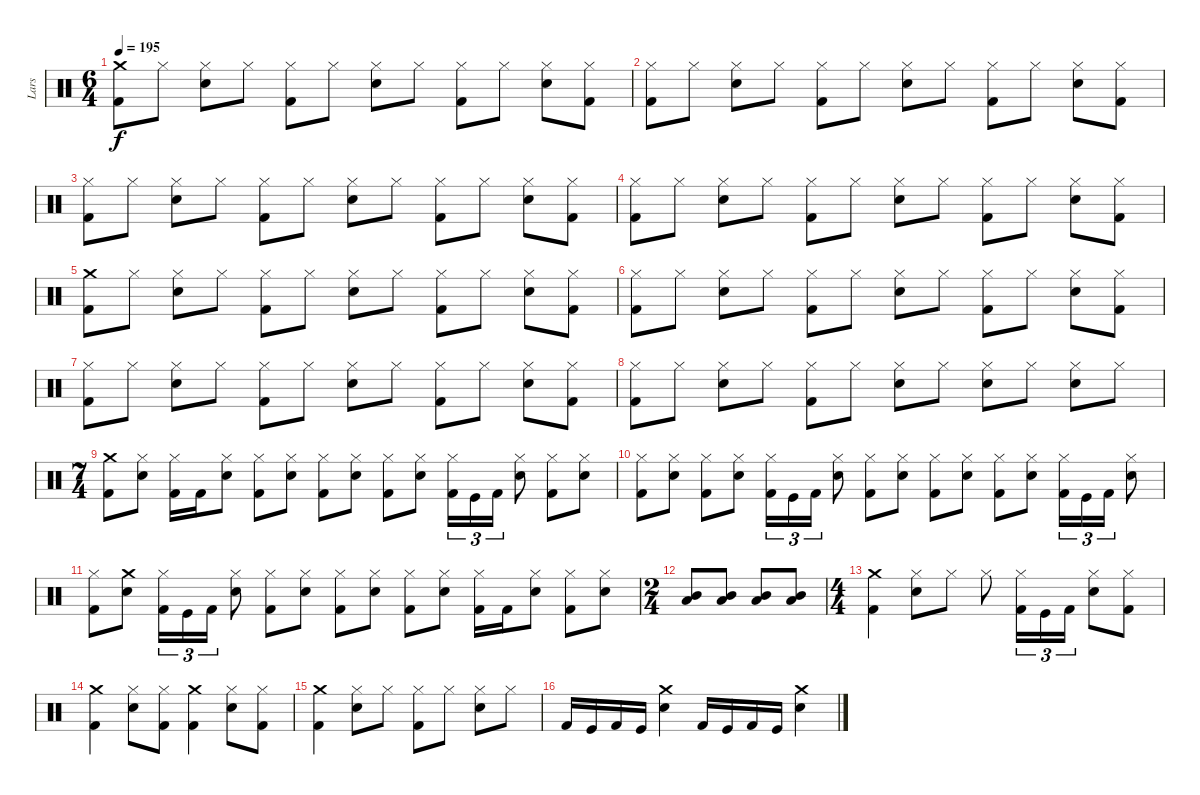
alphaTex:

\track ("Lars" "Lars") {instrument percussion}
\staff {score}
\articulation defaults
\ts (6 4)
\tempo 195
\clef neutral
\ks c
("Kick (hit) 2" "Crash medium (hit)").8{dy f} "Hi-Hat (closed)".8 ("Snare (hit) 2" "Hi-Hat (closed)").8 "Hi-Hat (closed)".8 ("Kick (hit) 2" "Hi-Hat (closed)").8 "Hi-Hat (closed)".8 ("Snare (hit) 2" "Hi-Hat (closed)").8 "Hi-Hat (closed)".8 ("Kick (hit) 2" "Hi-Hat (closed)").8 "Hi-Hat (closed)".8 ("Snare (hit) 2" "Hi-Hat (closed)").8 ("Kick (hit) 2" "Hi-Hat (closed)").8 |
("Hi-Hat (closed)" "Kick (hit) 2").8 "Hi-Hat (closed)".8 ("Snare (hit) 2" "Hi-Hat (closed)").8 "Hi-Hat (closed)".8 ("Kick (hit) 2" "Hi-Hat (closed)").8 "Hi-Hat (closed)".8 ("Snare (hit) 2" "Hi-Hat (closed)").8 "Hi-Hat (closed)".8 ("Kick (hit) 2" "Hi-Hat (closed)").8 "Hi-Hat (closed)".8 ("Snare (hit) 2" "Hi-Hat (closed)").8 ("Kick (hit) 2" "Hi-Hat (closed)").8 |
("Hi-Hat (closed)" "Kick (hit) 2").8 "Hi-Hat (closed)".8 ("Snare (hit) 2" "Hi-Hat (closed)").8 "Hi-Hat (closed)".8 ("Kick (hit) 2" "Hi-Hat (closed)").8 "Hi-Hat (closed)".8 ("Snare (hit) 2" "Hi-Hat (closed)").8 "Hi-Hat (closed)".8 ("Kick (hit) 2" "Hi-Hat (closed)").8 "Hi-Hat (closed)".8 ("Snare (hit) 2" "Hi-Hat (closed)").8 ("Kick (hit) 2" "Hi-Hat (closed)").8 |
("Hi-Hat (closed)" "Kick (hit) 2").8 "Hi-Hat (closed)".8 ("Snare (hit) 2" "Hi-Hat (closed)").8 "Hi-Hat (closed)".8 ("Kick (hit) 2" "Hi-Hat (closed)").8 "Hi-Hat (closed)".8 ("Snare (hit) 2" "Hi-Hat (closed)").8 "Hi-Hat (closed)".8 ("Kick (hit) 2" "Hi-Hat (closed)").8 "Hi-Hat (closed)".8 ("Snare (hit) 2" "Hi-Hat (closed)").8 ("Kick (hit) 2" "Hi-Hat (closed)").8 |
("Kick (hit) 2" "Crash medium (hit)").8 "Hi-Hat (closed)".8 ("Snare (hit) 2" "Hi-Hat (closed)").8 "Hi-Hat (closed)".8 ("Kick (hit) 2" "Hi-Hat (closed)").8 "Hi-Hat (closed)".8 ("Snare (hit) 2" "Hi-Hat (closed)").8 "Hi-Hat (closed)".8 ("Kick (hit) 2" "Hi-Hat (closed)").8 "Hi-Hat (closed)".8 ("Snare (hit) 2" "Hi-Hat (closed)").8 ("Kick (hit) 2" "Hi-Hat (closed)").8 |
("Hi-Hat (closed)" "Kick (hit) 2").8 "Hi-Hat (closed)".8 ("Snare (hit) 2" "Hi-Hat (closed)").8 "Hi-Hat (closed)".8 ("Kick (hit) 2" "Hi-Hat (closed)").8 "Hi-Hat (closed)".8 ("Snare (hit) 2" "Hi-Hat (closed)").8 "Hi-Hat (closed)".8 ("Kick (hit) 2" "Hi-Hat (closed)").8 "Hi-Hat (closed)".8 ("Snare (hit) 2" "Hi-Hat (closed)").8 ("Kick (hit) 2" "Hi-Hat (closed)").8 |
("Hi-Hat (closed)" "Kick (hit) 2").8 "Hi-Hat (closed)".8 ("Snare (hit) 2" "Hi-Hat (closed)").8 "Hi-Hat (closed)".8 ("Kick (hit) 2" "Hi-Hat (closed)").8 "Hi-Hat (closed)".8 ("Snare (hit) 2" "Hi-Hat (closed)").8 "Hi-Hat (closed)".8 ("Kick (hit) 2" "Hi-Hat (closed)").8 "Hi-Hat (closed)".8 ("Snare (hit) 2" "Hi-Hat (closed)").8 ("Kick (hit) 2" "Hi-Hat (closed)").8 |
("Hi-Hat (closed)" "Kick (hit) 2").8 "Hi-Hat (closed)".8 ("Snare (hit) 2" "Hi-Hat (closed)").8 "Hi-Hat (closed)".8 ("Kick (hit) 2" "Hi-Hat (closed)").8 "Hi-Hat (closed)".8 ("Snare (hit) 2" "Hi-Hat (closed)").8 "Hi-Hat (closed)".8 ("Snare (hit) 2" "Hi-Hat (closed)").8 "Hi-Hat (closed)".8 ("Snare (hit) 2" "Hi-Hat (closed)").8 "Hi-Hat (closed)".8 |
\ts (7 4)
("Crash medium (hit)" "Kick (hit) 2").8 ("Snare (hit) 2" "Hi-Hat (closed)").8 ("Hi-Hat (closed)" "Kick (hit) 2").16 "Kick (hit) 2".16 ("Snare (hit) 2" "Hi-Hat (closed)").8 ("Hi-Hat (closed)" "Kick (hit) 2").8 ("Snare (hit) 2" "Hi-Hat (closed)").8 ("Hi-Hat (closed)" "Kick (hit) 2").8 ("Snare (hit) 2" "Hi-Hat (closed)").8 ("Hi-Hat (closed)" "Kick (hit) 2").8 ("Snare (hit) 2" "Hi-Hat (closed)").8 ("Hi-Hat (closed)" "Kick (hit) 2").16{tu (3 2)} "Kick (hit)".16{tu (3 2)} "Kick (hit) 2".16{tu (3 2)} ("Snare (hit) 2" "Hi-Hat (closed)").8 ("Hi-Hat (closed)" "Kick (hit) 2").8 ("Snare (hit) 2" "Hi-Hat (closed)").8 |
("Hi-Hat (closed)" "Kick (hit) 2").8 ("Snare (hit) 2" "Hi-Hat (closed)").8 ("Hi-Hat (closed)" "Kick (hit) 2").8 ("Snare (hit) 2" "Hi-Hat (closed)").8 ("Hi-Hat (closed)" "Kick (hit) 2").16{tu (3 2)} "Kick (hit)".16{tu (3 2)} "Kick (hit) 2".16{tu (3 2)} ("Snare (hit) 2" "Hi-Hat (closed)").8 ("Hi-Hat (closed)" "Kick (hit) 2").8 ("Snare (hit) 2" "Hi-Hat (closed)").8 ("Hi-Hat (closed)" "Kick (hit) 2").8 ("Snare (hit) 2" "Hi-Hat (closed)").8 ("Kick (hit) 2" "Hi-Hat (closed)").8 ("Snare (hit) 2" "Hi-Hat (closed)").8 ("Kick (hit) 2" "Hi-Hat (closed)").16{tu (3 2)} "Kick (hit)".16{tu (3 2)} "Kick (hit) 2".16{tu (3 2)} ("Snare (hit) 2" "Hi-Hat (closed)").8 |
("Kick (hit) 2" "Hi-Hat (closed)").8 ("Crash medium (hit)" "Snare (hit) 2").8 ("Kick (hit) 2" "Hi-Hat (closed)").16{tu (3 2)} "Kick (hit)".16{tu (3 2)} "Kick (hit) 2".16{tu (3 2)} ("Snare (hit) 2" "Hi-Hat (closed)").8 ("Hi-Hat (closed)" "Kick (hit) 2").8 ("Hi-Hat (closed)" "Snare (hit) 2").8 ("Hi-Hat (closed)" "Kick (hit) 2").8 ("Snare (hit) 2" "Hi-Hat (closed)").8 ("Hi-Hat (closed)" "Kick (hit) 2").8 ("Snare (hit) 2" "Hi-Hat (closed)").8 ("Hi-Hat (closed)" "Kick (hit) 2").16 "Kick (hit) 2".16 ("Snare (hit) 2" "Hi-Hat (closed)").8 ("Hi-Hat (closed)" "Kick (hit) 2").8 ("Snare (hit) 2" "Hi-Hat (closed)").8 |
\ts (2 4)
("Mid Tom (hit)" "Low Tom (hit)").8 ("Mid Tom (hit)" "Low Tom (hit)").8 ("Mid Tom (hit)" "Low Tom (hit)").8 ("Mid Tom (hit)" "Low Tom (hit)").8 |
\ts (4 4)
("Kick (hit) 2" "Crash medium (hit)").4 ("Snare (hit) 2" "Hi-Hat (closed)").8 "Hi-Hat (closed)".8 "Hi-Hat (closed)".8 ("Kick (hit) 2" "Hi-Hat (closed)").16{tu (3 2)} "Kick (hit)".16{tu (3 2)} "Kick (hit) 2".16{tu (3 2)} ("Snare (hit) 2" "Hi-Hat (closed)").8 ("Kick (hit) 2" "Hi-Hat (closed)").8 |
("Kick (hit) 2" "Crash medium (hit)").4 ("Hi-Hat (closed)" "Snare (hit) 2").8 ("Kick (hit) 2" "Hi-Hat (closed)").8 ("Crash medium (hit)" "Kick (hit) 2").4 ("Hi-Hat (closed)" "Snare (hit) 2").8 ("Kick (hit) 2" "Hi-Hat (closed)").8 |
("Kick (hit) 2" "Crash medium (hit)").4 ("Hi-Hat (closed)" "Snare (hit) 2").8 "Hi-Hat (closed)".8 ("Hi-Hat (closed)" "Kick (hit) 2").8 "Hi-Hat (closed)".8 ("Snare (hit) 2" "Hi-Hat (closed)").8 "Hi-Hat (closed)".8 |
"Kick (hit) 2".16 "Kick (hit)".16 "Kick (hit) 2".16 "Kick (hit)".16 ("Crash medium (hit)" "Snare (hit) 2").4 "Kick (hit) 2".16 "Kick (hit)".16 "Kick (hit) 2".16 "Kick (hit)".16 ("Snare (hit) 2" "Crash medium (hit)").4
